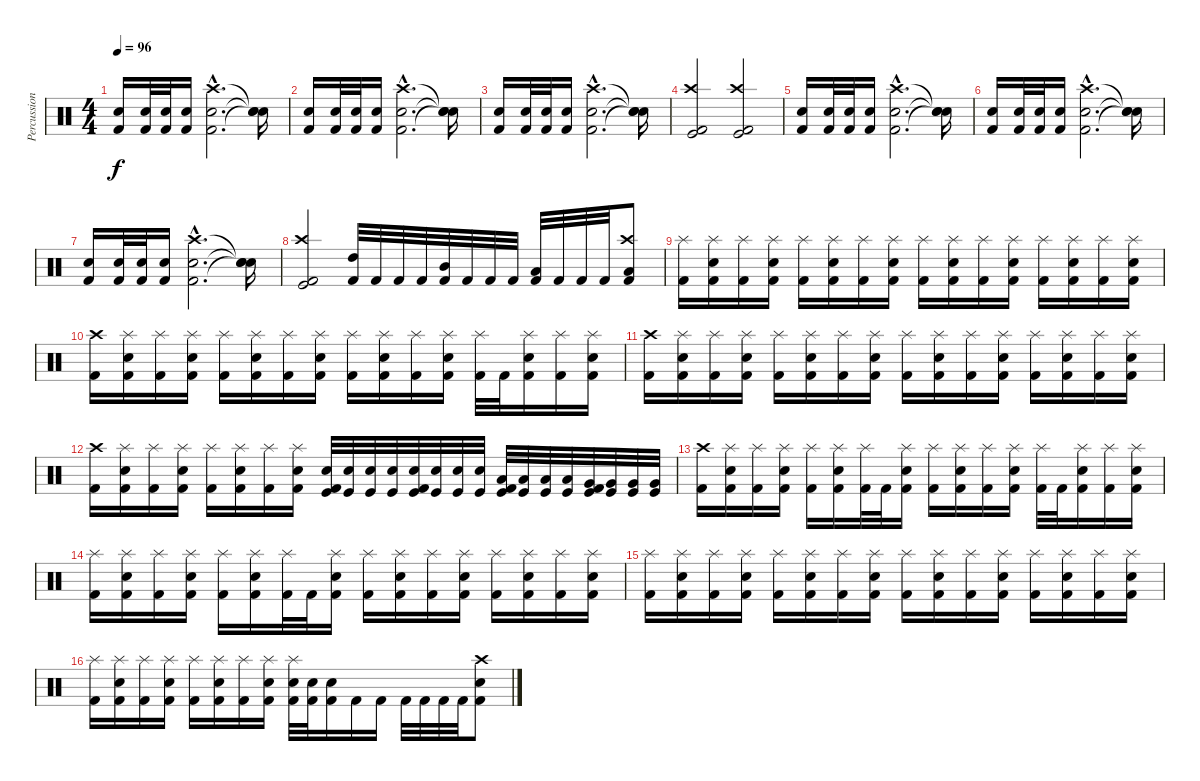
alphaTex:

\track ("Percussion" "Percussion") {instrument percussion}
\staff {score}
\articulation defaults
\ts (4 4)
\tempo 96
\clef neutral
\ks c
("Snare (hit) 2" "Kick (hit) 2").16{dy f} ("Snare (hit) 2" "Kick (hit) 2").32 ("Snare (hit) 2" "Kick (hit) 2").32 ("Snare (hit) 2" "Kick (hit) 2").16 ("Crash high (hit)"{hac} "Snare (hit) 2"{hac} "Kick (hit) 2"{hac}).2{d} ("Snare (hit)"{t} "Snare (hit)"{t} "Snare (hit)"{t}).16 |
("Snare (hit) 2" "Kick (hit) 2").16 ("Snare (hit) 2" "Kick (hit) 2").32 ("Snare (hit) 2" "Kick (hit) 2").32 ("Snare (hit) 2" "Kick (hit) 2").16 ("Crash high (hit)"{hac} "Snare (hit) 2"{hac} "Kick (hit) 2"{hac}).2{d} ("Snare (hit)"{t} "Snare (hit)"{t} "Snare (hit)"{t}).16 |
("Snare (hit) 2" "Kick (hit) 2").16 ("Snare (hit) 2" "Kick (hit) 2").32 ("Snare (hit) 2" "Kick (hit) 2").32 ("Snare (hit) 2" "Kick (hit) 2").16 ("Crash high (hit)"{hac} "Snare (hit) 2"{hac} "Kick (hit) 2"{hac}).2{d} ("Snare (hit)"{t} "Snare (hit)"{t} "Snare (hit)"{t}).16 |
("Kick (hit)" "Crash high (hit)" "Kick (hit) 2").2 ("Kick (hit)" "Crash high (hit)" "Kick (hit) 2").2 |
("Snare (hit) 2" "Kick (hit) 2").16 ("Snare (hit) 2" "Kick (hit) 2").32 ("Snare (hit) 2" "Kick (hit) 2").32 ("Snare (hit) 2" "Kick (hit) 2").16 ("Crash high (hit)"{hac} "Snare (hit) 2"{hac} "Kick (hit) 2"{hac}).2{d} ("Snare (hit)"{t} "Snare (hit)"{t} "Snare (hit)"{t}).16 |
("Snare (hit) 2" "Kick (hit) 2").16 ("Snare (hit) 2" "Kick (hit) 2").32 ("Snare (hit) 2" "Kick (hit) 2").32 ("Snare (hit) 2" "Kick (hit) 2").16 ("Crash high (hit)"{hac} "Snare (hit) 2"{hac} "Kick (hit) 2"{hac}).2{d} ("Snare (hit)"{t} "Snare (hit)"{t} "Snare (hit)"{t}).16 |
("Snare (hit) 2" "Kick (hit) 2").16 ("Snare (hit) 2" "Kick (hit) 2").32 ("Snare (hit) 2" "Kick (hit) 2").32 ("Snare (hit) 2" "Kick (hit) 2").16 ("Crash high (hit)"{hac} "Snare (hit) 2"{hac} "Kick (hit) 2"{hac}).2{d} ("Snare (hit)"{t} "Snare (hit)"{t} "Snare (hit)"{t}).16 |
("Crash high (hit)" "Kick (hit) 2" "Kick (hit)").2 ("High Tom (hit)" "Kick (hit) 2").32 "Kick (hit) 2".32 "Kick (hit) 2".32 "Kick (hit) 2".32 ("Mid Tom (hit)" "Kick (hit) 2").32 "Kick (hit) 2".32 "Kick (hit) 2".32 "Kick (hit) 2".32 ("Low Tom (hit)" "Kick (hit) 2").32 "Kick (hit) 2".32 "Kick (hit) 2".32 "Kick (hit) 2".32 ("Crash high (hit)" "Low Floor Tom (hit)" "Kick (hit) 2").8 |
("Splash (hit)" "Kick (hit) 2").16 ("Splash (hit)" "Snare (hit) 2" "Kick (hit) 2").16 ("Splash (hit)" "Kick (hit) 2").16 ("Splash (hit)" "Snare (hit) 2" "Kick (hit) 2").16 ("Splash (hit)" "Kick (hit) 2").16 ("Splash (hit)" "Snare (hit) 2" "Kick (hit) 2").16 ("Splash (hit)" "Kick (hit) 2").16 ("Splash (hit)" "Snare (hit) 2" "Kick (hit) 2").16 ("Splash (hit)" "Kick (hit) 2").16 ("Splash (hit)" "Snare (hit) 2" "Kick (hit) 2").16 ("Splash (hit)" "Kick (hit) 2").16 ("Splash (hit)" "Snare (hit) 2" "Kick (hit) 2").16 ("Splash (hit)" "Kick (hit) 2").16 ("Splash (hit)" "Snare (hit) 2" "Kick (hit) 2").16 ("Splash (hit)" "Kick (hit) 2").16 ("Splash (hit)" "Snare (hit) 2" "Kick (hit) 2").16 |
("Crash high (hit)" "Kick (hit) 2").16 ("Splash (hit)" "Snare (hit) 2" "Kick (hit) 2").16 ("Splash (hit)" "Kick (hit) 2").16 ("Splash (hit)" "Snare (hit) 2" "Kick (hit) 2").16 ("Splash (hit)" "Kick (hit) 2").16 ("Splash (hit)" "Snare (hit) 2" "Kick (hit) 2").16 ("Splash (hit)" "Kick (hit) 2").16 ("Splash (hit)" "Snare (hit) 2" "Kick (hit) 2").16 ("Splash (hit)" "Kick (hit) 2").16 ("Splash (hit)" "Snare (hit) 2" "Kick (hit) 2").16 ("Splash (hit)" "Kick (hit) 2").16 ("Splash (hit)" "Snare (hit) 2" "Kick (hit) 2").16 ("Splash (hit)" "Kick (hit) 2").32 "Kick (hit) 2".32 ("Splash (hit)" "Snare (hit) 2" "Kick (hit) 2").16 ("Splash (hit)" "Kick (hit) 2").16 ("Splash (hit)" "Snare (hit) 2" "Kick (hit) 2").16 |
("Crash high (hit)" "Kick (hit) 2").16 ("Splash (hit)" "Snare (hit) 2" "Kick (hit) 2").16 ("Splash (hit)" "Kick (hit) 2").16 ("Splash (hit)" "Snare (hit) 2" "Kick (hit) 2").16 ("Splash (hit)" "Kick (hit) 2").16 ("Splash (hit)" "Snare (hit) 2" "Kick (hit) 2").16 ("Splash (hit)" "Kick (hit) 2").16 ("Splash (hit)" "Snare (hit) 2" "Kick (hit) 2").16 ("Splash (hit)" "Kick (hit) 2").16 ("Splash (hit)" "Snare (hit) 2" "Kick (hit) 2").16 ("Splash (hit)" "Kick (hit) 2").16 ("Splash (hit)" "Snare (hit) 2" "Kick (hit) 2").16 ("Splash (hit)" "Kick (hit) 2").16 ("Splash (hit)" "Snare (hit) 2" "Kick (hit) 2").16 ("Splash (hit)" "Kick (hit) 2").16 ("Splash (hit)" "Snare (hit) 2" "Kick (hit) 2").16 |
("Crash high (hit)" "Kick (hit) 2").16 ("Splash (hit)" "Snare (hit) 2" "Kick (hit) 2").16 ("Splash (hit)" "Kick (hit) 2").16 ("Splash (hit)" "Snare (hit) 2" "Kick (hit) 2").16 ("Splash (hit)" "Kick (hit) 2").16 ("Splash (hit)" "Snare (hit) 2" "Kick (hit) 2").16 ("Splash (hit)" "Kick (hit) 2").16 ("Splash (hit)" "Snare (hit) 2" "Kick (hit) 2").16 ("Kick (hit)" "Snare (hit) 2" "Kick (hit) 2").32 ("Kick (hit)" "Snare (hit) 2").32 ("Kick (hit)" "Snare (hit) 2").32 ("Kick (hit)" "Snare (hit) 2").32 ("Kick (hit)" "Snare (hit) 2" "Kick (hit) 2").32 ("Kick (hit)" "Snare (hit) 2").32 ("Kick (hit)" "Snare (hit) 2").32 ("Kick (hit)" "Snare (hit) 2").32 ("Kick (hit)" "Low Tom (hit)" "Kick (hit) 2").32 ("Kick (hit)" "Low Tom (hit)").32 ("Kick (hit)" "Low Tom (hit)").32 ("Kick (hit)" "Low Tom (hit)").32 ("Kick (hit)" "Very Low Tom (hit)" "Kick (hit) 2").32 ("Kick (hit)" "Very Low Tom (hit)").32 ("Kick (hit)" "Very Low Tom (hit)").32 ("Kick (hit)" "Very Low Tom (hit)").32 |
("Crash high (hit)" "Kick (hit) 2").16 ("Splash (hit)" "Snare (hit) 2" "Kick (hit) 2").16 ("Splash (hit)" "Kick (hit) 2").16 ("Splash (hit)" "Snare (hit) 2" "Kick (hit) 2").16 ("Splash (hit)" "Kick (hit) 2").16 ("Splash (hit)" "Snare (hit) 2" "Kick (hit) 2").16 ("Splash (hit)" "Kick (hit) 2").32 "Kick (hit) 2".32 ("Splash (hit)" "Snare (hit) 2" "Kick (hit) 2").16 ("Splash (hit)" "Kick (hit) 2").16 ("Splash (hit)" "Snare (hit) 2" "Kick (hit) 2").16 ("Splash (hit)" "Kick (hit) 2").16 ("Splash (hit)" "Snare (hit) 2" "Kick (hit) 2").16 ("Splash (hit)" "Kick (hit) 2").32 "Kick (hit) 2".32 ("Splash (hit)" "Snare (hit) 2" "Kick (hit) 2").16 ("Splash (hit)" "Kick (hit) 2").16 ("Splash (hit)" "Snare (hit) 2" "Kick (hit) 2").16 |
("Splash (hit)" "Kick (hit) 2").16 ("Splash (hit)" "Snare (hit) 2" "Kick (hit) 2").16 ("Splash (hit)" "Kick (hit) 2").16 ("Splash (hit)" "Snare (hit) 2" "Kick (hit) 2").16 ("Splash (hit)" "Kick (hit) 2").16 ("Splash (hit)" "Snare (hit) 2" "Kick (hit) 2").16 ("Splash (hit)" "Kick (hit) 2").32 "Kick (hit) 2".32 ("Splash (hit)" "Snare (hit) 2" "Kick (hit) 2").16 ("Splash (hit)" "Kick (hit) 2").16 ("Splash (hit)" "Snare (hit) 2" "Kick (hit) 2").16 ("Splash (hit)" "Kick (hit) 2").16 ("Splash (hit)" "Snare (hit) 2" "Kick (hit) 2").16 ("Splash (hit)" "Kick (hit) 2").16 ("Splash (hit)" "Snare (hit) 2" "Kick (hit) 2").16 ("Splash (hit)" "Kick (hit) 2").16 ("Splash (hit)" "Snare (hit) 2" "Kick (hit) 2").16 |
("Splash (hit)" "Kick (hit) 2").16 ("Splash (hit)" "Snare (hit) 2" "Kick (hit) 2").16 ("Splash (hit)" "Kick (hit) 2").16 ("Splash (hit)" "Snare (hit) 2" "Kick (hit) 2").16 ("Splash (hit)" "Kick (hit) 2").16 ("Splash (hit)" "Snare (hit) 2" "Kick (hit) 2").16 ("Splash (hit)" "Kick (hit) 2").16 ("Splash (hit)" "Snare (hit) 2" "Kick (hit) 2").16 ("Splash (hit)" "Kick (hit) 2").16 ("Splash (hit)" "Snare (hit) 2" "Kick (hit) 2").16 ("Splash (hit)" "Kick (hit) 2").16 ("Splash (hit)" "Snare (hit) 2" "Kick (hit) 2").16 ("Splash (hit)" "Kick (hit) 2").16 ("Splash (hit)" "Snare (hit) 2" "Kick (hit) 2").16 ("Splash (hit)" "Kick (hit) 2").16 ("Splash (hit)" "Snare (hit) 2" "Kick (hit) 2").16 |
("Splash (hit)" "Kick (hit) 2").16 ("Splash (hit)" "Snare (hit) 2" "Kick (hit) 2").16 ("Splash (hit)" "Kick (hit) 2").16 ("Splash (hit)" "Snare (hit) 2" "Kick (hit) 2").16 ("Splash (hit)" "Kick (hit) 2").16 ("Splash (hit)" "Snare (hit) 2" "Kick (hit) 2").16 ("Splash (hit)" "Kick (hit) 2").16 ("Splash (hit)" "Snare (hit) 2" "Kick (hit) 2").16 ("Splash (hit)" "Snare (hit) 2" "Kick (hit) 2").32 ("Snare (hit) 2" "Kick (hit) 2").32 ("Snare (hit) 2" "Kick (hit) 2").16 "Kick (hit) 2".16 "Kick (hit) 2".16 "Kick (hit) 2".32 "Kick (hit) 2".32 "Kick (hit) 2".32 "Kick (hit) 2".32 ("Crash high (hit)" "Snare (hit) 2" "Kick (hit) 2").8
